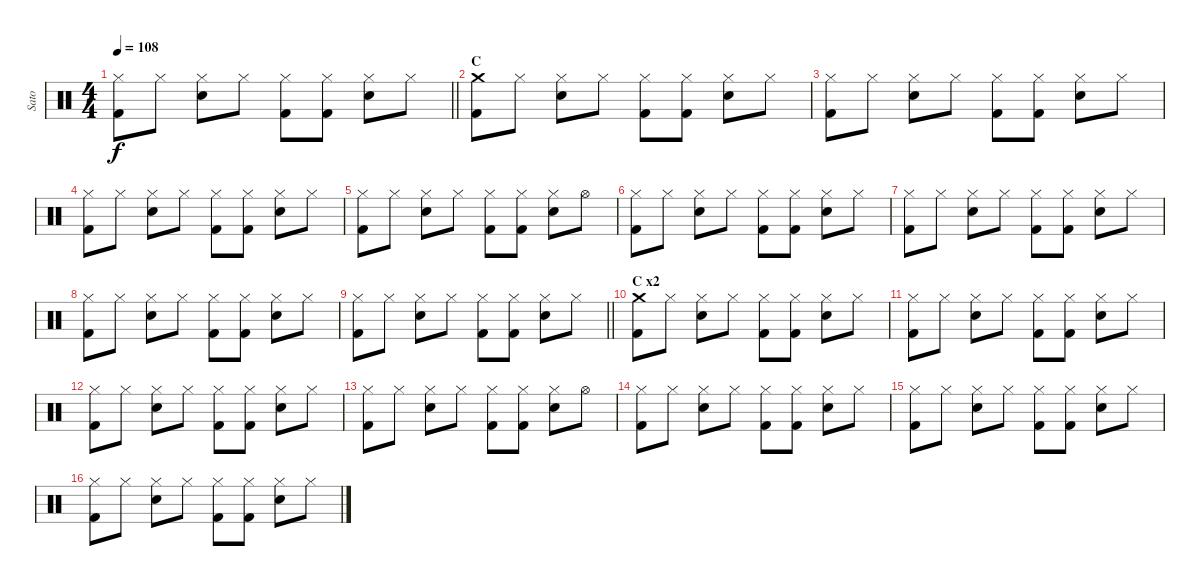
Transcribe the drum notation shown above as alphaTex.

\track ("Sato" "Sato") {instrument percussion}
\staff {score}
\articulation defaults
\ts (4 4)
\tempo 108
\clef neutral
\barLineRight lightlight
\ks c
("Hi-Hat (closed)" "Kick (hit) 2").8{dy f} "Hi-Hat (closed)".8 ("Hi-Hat (closed)" "Electric Snare (hit)").8 "Hi-Hat (closed)".8 ("Hi-Hat (closed)" "Kick (hit) 2").8 ("Hi-Hat (closed)" "Kick (hit) 2").8 ("Hi-Hat (closed)" "Electric Snare (hit)").8 "Hi-Hat (closed)".8 |
\section ("" "C")
("Crash medium (hit)" "Kick (hit) 2").8 "Hi-Hat (closed)".8 ("Hi-Hat (closed)" "Electric Snare (hit)").8 "Hi-Hat (closed)".8 ("Hi-Hat (closed)" "Kick (hit) 2").8 ("Hi-Hat (closed)" "Kick (hit) 2").8 ("Hi-Hat (closed)" "Electric Snare (hit)").8 "Hi-Hat (closed)".8 |
("Hi-Hat (closed)" "Kick (hit) 2").8 "Hi-Hat (closed)".8 ("Hi-Hat (closed)" "Electric Snare (hit)").8 "Hi-Hat (closed)".8 ("Hi-Hat (closed)" "Kick (hit) 2").8 ("Hi-Hat (closed)" "Kick (hit) 2").8 ("Hi-Hat (closed)" "Electric Snare (hit)").8 "Hi-Hat (closed)".8 |
("Hi-Hat (closed)" "Kick (hit) 2").8 "Hi-Hat (closed)".8 ("Hi-Hat (closed)" "Electric Snare (hit)").8 "Hi-Hat (closed)".8 ("Hi-Hat (closed)" "Kick (hit) 2").8 ("Hi-Hat (closed)" "Kick (hit) 2").8 ("Hi-Hat (closed)" "Electric Snare (hit)").8 "Hi-Hat (closed)".8 |
("Hi-Hat (closed)" "Kick (hit) 2").8 "Hi-Hat (closed)".8 ("Hi-Hat (closed)" "Electric Snare (hit)").8 "Hi-Hat (closed)".8 ("Hi-Hat (closed)" "Kick (hit) 2").8 ("Hi-Hat (closed)" "Kick (hit) 2").8 ("Hi-Hat (closed)" "Electric Snare (hit)").8 "Hi-Hat (open)".8 |
("Hi-Hat (closed)" "Kick (hit) 2").8 "Hi-Hat (closed)".8 ("Hi-Hat (closed)" "Electric Snare (hit)").8 "Hi-Hat (closed)".8 ("Hi-Hat (closed)" "Kick (hit) 2").8 ("Hi-Hat (closed)" "Kick (hit) 2").8 ("Hi-Hat (closed)" "Electric Snare (hit)").8 "Hi-Hat (closed)".8 |
("Hi-Hat (closed)" "Kick (hit) 2").8 "Hi-Hat (closed)".8 ("Hi-Hat (closed)" "Electric Snare (hit)").8 "Hi-Hat (closed)".8 ("Hi-Hat (closed)" "Kick (hit) 2").8 ("Hi-Hat (closed)" "Kick (hit) 2").8 ("Hi-Hat (closed)" "Electric Snare (hit)").8 "Hi-Hat (closed)".8 |
("Hi-Hat (closed)" "Kick (hit) 2").8 "Hi-Hat (closed)".8 ("Hi-Hat (closed)" "Electric Snare (hit)").8 "Hi-Hat (closed)".8 ("Hi-Hat (closed)" "Kick (hit) 2").8 ("Hi-Hat (closed)" "Kick (hit) 2").8 ("Hi-Hat (closed)" "Electric Snare (hit)").8 "Hi-Hat (closed)".8 |
\barLineRight lightlight
("Hi-Hat (closed)" "Kick (hit) 2").8 "Hi-Hat (closed)".8 ("Hi-Hat (closed)" "Electric Snare (hit)").8 "Hi-Hat (closed)".8 ("Hi-Hat (closed)" "Kick (hit) 2").8 ("Hi-Hat (closed)" "Kick (hit) 2").8 ("Hi-Hat (closed)" "Electric Snare (hit)").8 "Hi-Hat (closed)".8 |
\section ("" "C x2")
("Crash medium (hit)" "Kick (hit) 2").8 "Hi-Hat (closed)".8 ("Hi-Hat (closed)" "Electric Snare (hit)").8 "Hi-Hat (closed)".8 ("Hi-Hat (closed)" "Kick (hit) 2").8 ("Hi-Hat (closed)" "Kick (hit) 2").8 ("Hi-Hat (closed)" "Electric Snare (hit)").8 "Hi-Hat (closed)".8 |
("Hi-Hat (closed)" "Kick (hit) 2").8 "Hi-Hat (closed)".8 ("Hi-Hat (closed)" "Electric Snare (hit)").8 "Hi-Hat (closed)".8 ("Hi-Hat (closed)" "Kick (hit) 2").8 ("Hi-Hat (closed)" "Kick (hit) 2").8 ("Hi-Hat (closed)" "Electric Snare (hit)").8 "Hi-Hat (closed)".8 |
("Hi-Hat (closed)" "Kick (hit) 2").8 "Hi-Hat (closed)".8 ("Hi-Hat (closed)" "Electric Snare (hit)").8 "Hi-Hat (closed)".8 ("Hi-Hat (closed)" "Kick (hit) 2").8 ("Hi-Hat (closed)" "Kick (hit) 2").8 ("Hi-Hat (closed)" "Electric Snare (hit)").8 "Hi-Hat (closed)".8 |
("Hi-Hat (closed)" "Kick (hit) 2").8 "Hi-Hat (closed)".8 ("Hi-Hat (closed)" "Electric Snare (hit)").8 "Hi-Hat (closed)".8 ("Hi-Hat (closed)" "Kick (hit) 2").8 ("Hi-Hat (closed)" "Kick (hit) 2").8 ("Hi-Hat (closed)" "Electric Snare (hit)").8 "Hi-Hat (open)".8 |
("Hi-Hat (closed)" "Kick (hit) 2").8 "Hi-Hat (closed)".8 ("Hi-Hat (closed)" "Electric Snare (hit)").8 "Hi-Hat (closed)".8 ("Hi-Hat (closed)" "Kick (hit) 2").8 ("Hi-Hat (closed)" "Kick (hit) 2").8 ("Hi-Hat (closed)" "Electric Snare (hit)").8 "Hi-Hat (closed)".8 |
("Hi-Hat (closed)" "Kick (hit) 2").8 "Hi-Hat (closed)".8 ("Hi-Hat (closed)" "Electric Snare (hit)").8 "Hi-Hat (closed)".8 ("Hi-Hat (closed)" "Kick (hit) 2").8 ("Hi-Hat (closed)" "Kick (hit) 2").8 ("Hi-Hat (closed)" "Electric Snare (hit)").8 "Hi-Hat (closed)".8 |
("Hi-Hat (closed)" "Kick (hit) 2").8 "Hi-Hat (closed)".8 ("Hi-Hat (closed)" "Electric Snare (hit)").8 "Hi-Hat (closed)".8 ("Hi-Hat (closed)" "Kick (hit) 2").8 ("Hi-Hat (closed)" "Kick (hit) 2").8 ("Hi-Hat (closed)" "Electric Snare (hit)").8 "Hi-Hat (closed)".8
